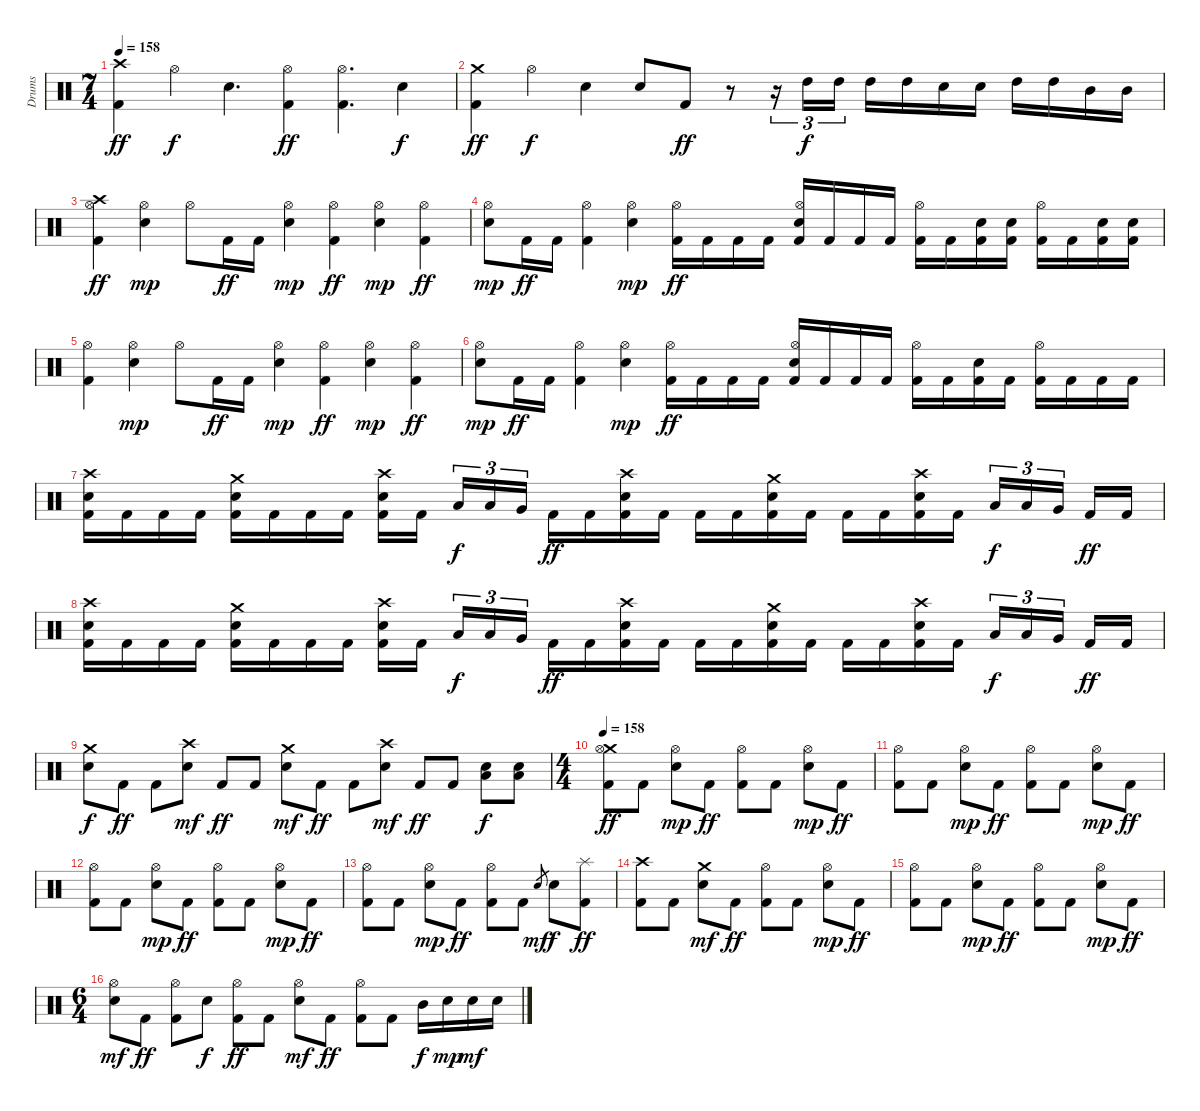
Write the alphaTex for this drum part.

\track ("Drums" "Drums") {instrument percussion}
\staff {score}
\articulation defaults
\ts (7 4)
\tempo 158
\clef neutral
\ks c
("Crash high (hit)" "Kick (hit) 2").4{dy ff} "Hi-Hat (open)".4{dy f} "Electric Snare (hit)".4{d} ("Hi-Hat (open)" "Kick (hit) 2").4{dy ff} ("Hi-Hat (open)" "Kick (hit) 2").4{d} "Electric Snare (hit)".4{dy f} |
("Crash medium (hit)" "Kick (hit) 2").4{dy ff} "Hi-Hat (open)".4{dy f} "Electric Snare (hit)".4 "Electric Snare (hit)".8 "Kick (hit) 2".8{dy ff} r.8 r.16{tu (3 2)} "High Tom (hit)".16{tu (3 2) dy f} "High Tom (hit)".16{tu (3 2)} "High Tom (hit)".16 "High Tom (hit)".16 "Electric Snare (hit)".16 "Electric Snare (hit)".16 "High Tom (hit)".16 "High Tom (hit)".16 "Mid Tom (hit)".16 "Mid Tom (hit)".16 |
("Crash high (hit)" "Hi-Hat (open)" "Kick (hit) 2").4{dy ff} ("Hi-Hat (open)" "Electric Snare (hit)").4{dy mp} "Hi-Hat (open)".8 "Kick (hit) 2".16{dy ff} "Kick (hit) 2".16 ("Hi-Hat (open)" "Electric Snare (hit)").4{dy mp} ("Hi-Hat (open)" "Kick (hit) 2").4{dy ff} ("Hi-Hat (open)" "Electric Snare (hit)").4{dy mp} ("Hi-Hat (open)" "Kick (hit) 2").4{dy ff} |
("Hi-Hat (open)" "Electric Snare (hit)").8{dy mp} "Kick (hit) 2".16{dy ff} "Kick (hit) 2".16 ("Hi-Hat (open)" "Kick (hit) 2").4 ("Hi-Hat (open)" "Electric Snare (hit)").4{dy mp} ("Hi-Hat (open)" "Kick (hit) 2").16{dy ff} "Kick (hit) 2".16 "Kick (hit) 2".16 "Kick (hit) 2".16 ("Hi-Hat (open)" "Electric Snare (hit)" "Kick (hit) 2").16 "Kick (hit) 2".16 "Kick (hit) 2".16 "Kick (hit) 2".16 ("Hi-Hat (open)" "Kick (hit) 2").16 "Kick (hit) 2".16 ("Electric Snare (hit)" "Kick (hit) 2").16 ("Electric Snare (hit)" "Kick (hit) 2").16 ("Hi-Hat (open)" "Kick (hit) 2").16 "Kick (hit) 2".16 ("Electric Snare (hit)" "Kick (hit) 2").16 ("Electric Snare (hit)" "Kick (hit) 2").16 |
("Hi-Hat (open)" "Kick (hit) 2").4 ("Hi-Hat (open)" "Electric Snare (hit)").4{dy mp} "Hi-Hat (open)".8 "Kick (hit) 2".16{dy ff} "Kick (hit) 2".16 ("Hi-Hat (open)" "Electric Snare (hit)").4{dy mp} ("Hi-Hat (open)" "Kick (hit) 2").4{dy ff} ("Hi-Hat (open)" "Electric Snare (hit)").4{dy mp} ("Hi-Hat (open)" "Kick (hit) 2").4{dy ff} |
("Hi-Hat (open)" "Electric Snare (hit)").8{dy mp} "Kick (hit) 2".16{dy ff} "Kick (hit) 2".16 ("Hi-Hat (open)" "Kick (hit) 2").4 ("Hi-Hat (open)" "Electric Snare (hit)").4{dy mp} ("Hi-Hat (open)" "Kick (hit) 2").16{dy ff} "Kick (hit) 2".16 "Kick (hit) 2".16 "Kick (hit) 2".16 ("Hi-Hat (open)" "Electric Snare (hit)" "Kick (hit) 2").16 "Kick (hit) 2".16 "Kick (hit) 2".16 "Kick (hit) 2".16 ("Hi-Hat (open)" "Kick (hit) 2").16 "Kick (hit) 2".16 ("Electric Snare (hit)" "Kick (hit) 2").16 "Kick (hit) 2".16 ("Hi-Hat (open)" "Kick (hit) 2").16 "Kick (hit) 2".16 "Kick (hit) 2".16 "Kick (hit) 2".16 |
("Crash high (hit)" "Electric Snare (hit)" "Kick (hit) 2").16 "Kick (hit) 2".16 "Kick (hit) 2".16 "Kick (hit) 2".16 ("Crash medium (hit)" "Electric Snare (hit)" "Kick (hit) 2").16 "Kick (hit) 2".16 "Kick (hit) 2".16 "Kick (hit) 2".16 ("Crash high (hit)" "Electric Snare (hit)" "Kick (hit) 2").16 "Kick (hit) 2".16 "Low Tom (hit)".16{tu (3 2) dy f} "Low Tom (hit)".16{tu (3 2)} "Very Low Tom (hit)".16{tu (3 2)} "Kick (hit) 2".16{dy ff} "Kick (hit) 2".16 ("Crash high (hit)" "Electric Snare (hit)" "Kick (hit) 2").16 "Kick (hit) 2".16 "Kick (hit) 2".16 "Kick (hit) 2".16 ("Crash medium (hit)" "Electric Snare (hit)" "Kick (hit) 2").16 "Kick (hit) 2".16 "Kick (hit) 2".16 "Kick (hit) 2".16 ("Crash high (hit)" "Electric Snare (hit)" "Kick (hit) 2").16 "Kick (hit) 2".16 "Low Tom (hit)".16{tu (3 2) dy f} "Low Tom (hit)".16{tu (3 2)} "Very Low Tom (hit)".16{tu (3 2)} "Kick (hit) 2".16{dy ff} "Kick (hit) 2".16 |
("Crash high (hit)" "Electric Snare (hit)" "Kick (hit) 2").16 "Kick (hit) 2".16 "Kick (hit) 2".16 "Kick (hit) 2".16 ("Crash medium (hit)" "Electric Snare (hit)" "Kick (hit) 2").16 "Kick (hit) 2".16 "Kick (hit) 2".16 "Kick (hit) 2".16 ("Crash high (hit)" "Electric Snare (hit)" "Kick (hit) 2").16 "Kick (hit) 2".16 "Low Tom (hit)".16{tu (3 2) dy f} "Low Tom (hit)".16{tu (3 2)} "Very Low Tom (hit)".16{tu (3 2)} "Kick (hit) 2".16{dy ff} "Kick (hit) 2".16 ("Crash high (hit)" "Electric Snare (hit)" "Kick (hit) 2").16 "Kick (hit) 2".16 "Kick (hit) 2".16 "Kick (hit) 2".16 ("Crash medium (hit)" "Electric Snare (hit)" "Kick (hit) 2").16 "Kick (hit) 2".16 "Kick (hit) 2".16 "Kick (hit) 2".16 ("Crash high (hit)" "Electric Snare (hit)" "Kick (hit) 2").16 "Kick (hit) 2".16 "Low Tom (hit)".16{tu (3 2) dy f} "Low Tom (hit)".16{tu (3 2)} "Very Low Tom (hit)".16{tu (3 2)} "Kick (hit) 2".16{dy ff} "Kick (hit) 2".16 |
("Crash medium (hit)" "Electric Snare (hit)").8{dy f} "Kick (hit) 2".8{dy ff} "Kick (hit) 2".8 ("Crash high (hit)" "Electric Snare (hit)").8{dy mf} "Kick (hit) 2".8{dy ff} "Kick (hit) 2".8 ("Crash medium (hit)" "Electric Snare (hit)").8{dy mf} "Kick (hit) 2".8{dy ff} "Kick (hit) 2".8 ("Crash high (hit)" "Electric Snare (hit)").8{dy mf} "Kick (hit) 2".8{dy ff} "Kick (hit) 2".8 ("Electric Snare (hit)" "Low Tom (hit)").8{dy f} ("Electric Snare (hit)" "Low Tom (hit)").8 |
\ts (4 4)
\tempo 158
("Crash medium (hit)" "Hi-Hat (open)" "Kick (hit) 2").8{dy ff} "Kick (hit) 2".8 ("Hi-Hat (open)" "Electric Snare (hit)").8{dy mp} "Kick (hit) 2".8{dy ff} ("Hi-Hat (open)" "Kick (hit) 2").8 "Kick (hit) 2".8 ("Hi-Hat (open)" "Electric Snare (hit)").8{dy mp} "Kick (hit) 2".8{dy ff} |
("Hi-Hat (open)" "Kick (hit) 2").8 "Kick (hit) 2".8 ("Hi-Hat (open)" "Electric Snare (hit)").8{dy mp} "Kick (hit) 2".8{dy ff} ("Hi-Hat (open)" "Kick (hit) 2").8 "Kick (hit) 2".8 ("Hi-Hat (open)" "Electric Snare (hit)").8{dy mp} "Kick (hit) 2".8{dy ff} |
("Hi-Hat (open)" "Kick (hit) 2").8 "Kick (hit) 2".8 ("Hi-Hat (open)" "Electric Snare (hit)").8{dy mp} "Kick (hit) 2".8{dy ff} ("Hi-Hat (open)" "Kick (hit) 2").8 "Kick (hit) 2".8 ("Hi-Hat (open)" "Electric Snare (hit)").8{dy mp} "Kick (hit) 2".8{dy ff} |
("Hi-Hat (open)" "Kick (hit) 2").8 "Kick (hit) 2".8 ("Hi-Hat (open)" "Electric Snare (hit)").8{dy mp} "Kick (hit) 2".8{dy ff} ("Hi-Hat (open)" "Kick (hit) 2").8 "Kick (hit) 2".8 "Electric Snare (hit)".8{gr dy mf} "Electric Snare (hit)".8{dy f} ("Splash (hit)" "Kick (hit) 2").8{dy ff} |
("Crash high (hit)" "Kick (hit) 2").8 "Kick (hit) 2".8 ("Crash medium (hit)" "Electric Snare (hit)").8{dy mf} "Kick (hit) 2".8{dy ff} ("Hi-Hat (open)" "Kick (hit) 2").8 "Kick (hit) 2".8 ("Hi-Hat (open)" "Electric Snare (hit)").8{dy mp} "Kick (hit) 2".8{dy ff} |
("Hi-Hat (open)" "Kick (hit) 2").8 "Kick (hit) 2".8 ("Hi-Hat (open)" "Electric Snare (hit)").8{dy mp} "Kick (hit) 2".8{dy ff} ("Hi-Hat (open)" "Kick (hit) 2").8 "Kick (hit) 2".8 ("Hi-Hat (open)" "Electric Snare (hit)").8{dy mp} "Kick (hit) 2".8{dy ff} |
\ts (6 4)
("Hi-Hat (open)" "Electric Snare (hit)").8{dy mf} "Kick (hit) 2".8{dy ff} ("Hi-Hat (open)" "Kick (hit) 2").8 "Electric Snare (hit)".8{dy f} ("Hi-Hat (open)" "Kick (hit) 2").8{dy ff} "Kick (hit) 2".8 ("Hi-Hat (open)" "Electric Snare (hit)").8{dy mf} "Kick (hit) 2".8{dy ff} ("Hi-Hat (open)" "Kick (hit) 2").8 "Kick (hit) 2".8 "Mid Tom (hit)".16{dy f} "Electric Snare (hit)".16{dy mp} "Electric Snare (hit)".16{dy mf} "Electric Snare (hit)".16
